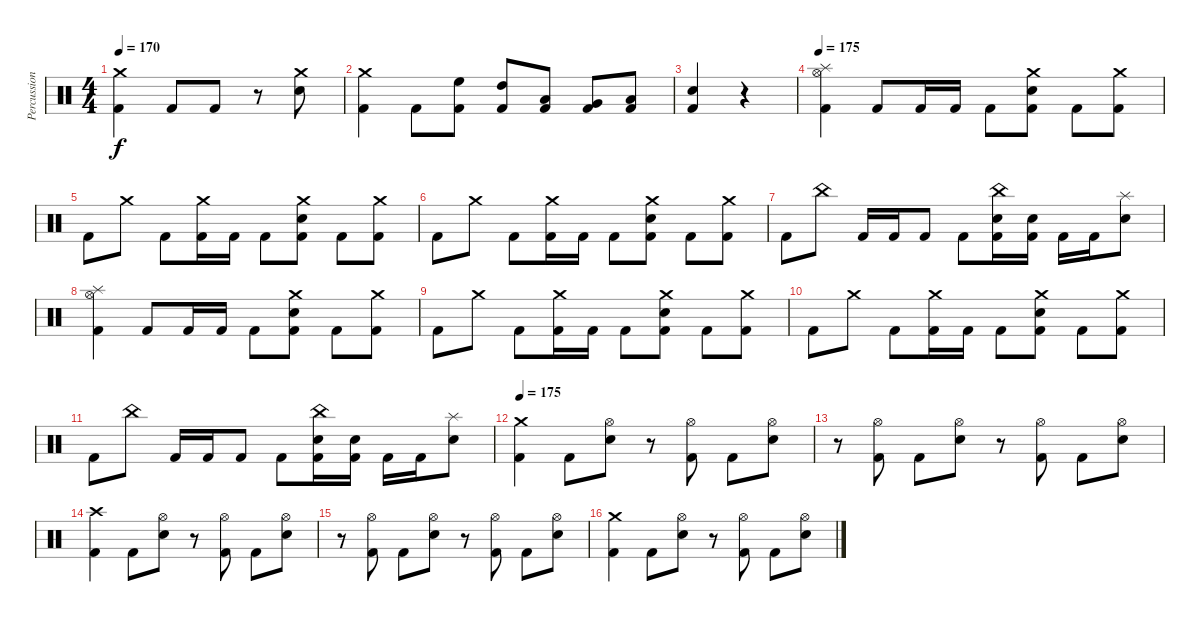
\track ("Percussion" "Percussion") {instrument percussion}
\staff {score}
\articulation defaults
\ts (4 4)
\tempo 170
\clef neutral
\ks c
("Crash medium (hit)" "Kick (hit) 2").4{dy f} "Kick (hit) 2".8 "Kick (hit) 2".8 r.8 ("Crash medium (hit)" "Electric Snare (hit)").8 |
("Crash medium (hit)" "Kick (hit) 2").4 "Kick (hit) 2".8 ("High Floor Tom (hit)" "Kick (hit) 2").8 ("High Tom (hit)" "Kick (hit) 2").8 ("Low Tom (hit)" "Kick (hit) 2").8 ("Very Low Tom (hit)" "Kick (hit) 2").8 ("Low Floor Tom (hit)" "Kick (hit) 2").8 |
("Electric Snare (hit)" "Kick (hit) 2").4 r.4 |
\tempo 175
("Hi-Hat (open)" "Splash (hit)" "Kick (hit) 2").4 "Kick (hit) 2".8 "Kick (hit) 2".16 "Kick (hit) 2".16 "Kick (hit) 2".8 ("Crash medium (hit)" "Electric Snare (hit)" "Kick (hit) 2").8 "Kick (hit) 2".8 ("Crash medium (hit)" "Kick (hit) 2").8 |
"Kick (hit) 2".8 "Crash medium (hit)".8 "Kick (hit) 2".8 ("Crash medium (hit)" "Kick (hit) 2").16 "Kick (hit) 2".16 "Kick (hit) 2".8 ("Crash medium (hit)" "Electric Snare (hit)" "Kick (hit) 2").8 "Kick (hit) 2".8 ("Crash medium (hit)" "Kick (hit) 2").8 |
"Kick (hit) 2".8 "Crash medium (hit)".8 "Kick (hit) 2".8 ("Crash medium (hit)" "Kick (hit) 2").16 "Kick (hit) 2".16 "Kick (hit) 2".8 ("Crash medium (hit)" "Electric Snare (hit)" "Kick (hit) 2").8 "Kick (hit) 2".8 ("Crash medium (hit)" "Kick (hit) 2").8 |
"Kick (hit) 2".8 "China (hit)".8 "Kick (hit) 2".16 "Kick (hit) 2".16 "Kick (hit) 2".8 "Kick (hit) 2".8 ("China (hit)" "Electric Snare (hit)" "Kick (hit) 2").16 ("Electric Snare (hit)" "Kick (hit) 2").16 "Kick (hit) 2".16 "Kick (hit) 2".16 ("Splash (hit)" "Electric Snare (hit)").8 |
("Hi-Hat (open)" "Splash (hit)" "Kick (hit) 2").4 "Kick (hit) 2".8 "Kick (hit) 2".16 "Kick (hit) 2".16 "Kick (hit) 2".8 ("Crash medium (hit)" "Electric Snare (hit)" "Kick (hit) 2").8 "Kick (hit) 2".8 ("Crash medium (hit)" "Kick (hit) 2").8 |
"Kick (hit) 2".8 "Crash medium (hit)".8 "Kick (hit) 2".8 ("Crash medium (hit)" "Kick (hit) 2").16 "Kick (hit) 2".16 "Kick (hit) 2".8 ("Crash medium (hit)" "Electric Snare (hit)" "Kick (hit) 2").8 "Kick (hit) 2".8 ("Crash medium (hit)" "Kick (hit) 2").8 |
"Kick (hit) 2".8 "Crash medium (hit)".8 "Kick (hit) 2".8 ("Crash medium (hit)" "Kick (hit) 2").16 "Kick (hit) 2".16 "Kick (hit) 2".8 ("Crash medium (hit)" "Electric Snare (hit)" "Kick (hit) 2").8 "Kick (hit) 2".8 ("Crash medium (hit)" "Kick (hit) 2").8 |
"Kick (hit) 2".8 "China (hit)".8 "Kick (hit) 2".16 "Kick (hit) 2".16 "Kick (hit) 2".8 "Kick (hit) 2".8 ("China (hit)" "Electric Snare (hit)" "Kick (hit) 2").16 ("Electric Snare (hit)" "Kick (hit) 2").16 "Kick (hit) 2".16 "Kick (hit) 2".16 ("Splash (hit)" "Electric Snare (hit)").8 |
\tempo 175
("Crash medium (hit)" "Kick (hit) 2").4 "Kick (hit) 2".8 ("Hi-Hat (open)" "Electric Snare (hit)").8 r.8 ("Hi-Hat (open)" "Kick (hit) 2").8 "Kick (hit) 2".8 ("Hi-Hat (open)" "Electric Snare (hit)").8 |
r.8 ("Hi-Hat (open)" "Kick (hit) 2").8 "Kick (hit) 2".8 ("Hi-Hat (open)" "Electric Snare (hit)").8 r.8 ("Hi-Hat (open)" "Kick (hit) 2").8 "Kick (hit) 2".8 ("Hi-Hat (open)" "Electric Snare (hit)").8 |
("Crash high (hit)" "Kick (hit) 2").4 "Kick (hit) 2".8 ("Hi-Hat (open)" "Electric Snare (hit)").8 r.8 ("Hi-Hat (open)" "Kick (hit) 2").8 "Kick (hit) 2".8 ("Hi-Hat (open)" "Electric Snare (hit)").8 |
r.8 ("Hi-Hat (open)" "Kick (hit) 2").8 "Kick (hit) 2".8 ("Hi-Hat (open)" "Electric Snare (hit)").8 r.8 ("Hi-Hat (open)" "Kick (hit) 2").8 "Kick (hit) 2".8 ("Hi-Hat (open)" "Electric Snare (hit)").8 |
("Crash medium (hit)" "Kick (hit) 2").4 "Kick (hit) 2".8 ("Hi-Hat (open)" "Electric Snare (hit)").8 r.8 ("Hi-Hat (open)" "Kick (hit) 2").8 "Kick (hit) 2".8 ("Hi-Hat (open)" "Electric Snare (hit)").8
